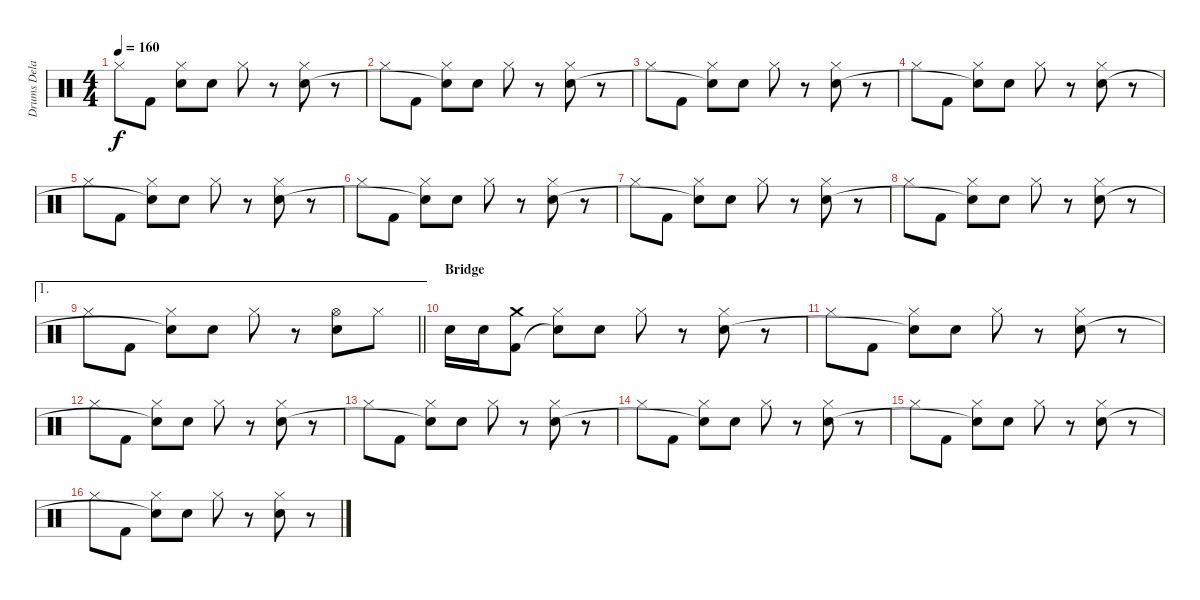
\track ("Drums Delay" "Drums Dela") {instrument percussion}
\staff {score}
\articulation defaults
\ts (4 4)
\tempo 160
\clef neutral
\ks c "Hi-Hat (closed)".8{dy f} "Kick (hit) 2".8
("Hi-Hat (closed)" "Snare (hit)"{t}).8 "Electric Snare (hit)".8 "Hi-Hat (closed)".8 r.8 ("Hi-Hat (closed)" "Electric Snare (hit)").8 r.8 |
"Hi-Hat (closed)".8 "Kick (hit) 2".8 ("Hi-Hat (closed)" "Snare (hit)"{t}).8 "Electric Snare (hit)".8 "Hi-Hat (closed)".8 r.8 ("Hi-Hat (closed)" "Electric Snare (hit)").8 r.8 |
"Hi-Hat (closed)".8 "Kick (hit) 2".8 ("Hi-Hat (closed)" "Snare (hit)"{t}).8 "Electric Snare (hit)".8 "Hi-Hat (closed)".8 r.8 ("Hi-Hat (closed)" "Electric Snare (hit)").8 r.8 |
"Hi-Hat (closed)".8 "Kick (hit) 2".8 ("Hi-Hat (closed)" "Snare (hit)"{t}).8 "Electric Snare (hit)".8 "Hi-Hat (closed)".8 r.8 ("Hi-Hat (closed)" "Electric Snare (hit)").8 r.8 |
"Hi-Hat (closed)".8 "Kick (hit) 2".8 ("Hi-Hat (closed)" "Snare (hit)"{t}).8 "Electric Snare (hit)".8 "Hi-Hat (closed)".8 r.8 ("Hi-Hat (closed)" "Electric Snare (hit)").8 r.8 |
"Hi-Hat (closed)".8 "Kick (hit) 2".8 ("Hi-Hat (closed)" "Snare (hit)"{t}).8 "Electric Snare (hit)".8 "Hi-Hat (closed)".8 r.8 ("Hi-Hat (closed)" "Electric Snare (hit)").8 r.8 |
"Hi-Hat (closed)".8 "Kick (hit) 2".8 ("Hi-Hat (closed)" "Snare (hit)"{t}).8 "Electric Snare (hit)".8 "Hi-Hat (closed)".8 r.8 ("Hi-Hat (closed)" "Electric Snare (hit)").8 r.8 |
"Hi-Hat (closed)".8 "Kick (hit) 2".8 ("Hi-Hat (closed)" "Snare (hit)"{t}).8 "Electric Snare (hit)".8 "Hi-Hat (closed)".8 r.8 ("Hi-Hat (closed)" "Electric Snare (hit)").8 r.8 |
\ae 1
\barLineRight lightlight "Hi-Hat (closed)".8 "Kick (hit) 2".8
("Hi-Hat (closed)" "Snare (hit)"{t}).8 "Electric Snare (hit)".8 "Hi-Hat (closed)".8 r.8 ("Hi-Hat (open)" "Electric Snare (hit)").8 "Hi-Hat (closed)".8 |
\section ("" "Bridge")
"Electric Snare (hit)".16 "Electric Snare (hit)".16 ("Crash medium (hit)" "Kick (hit) 2").8 ("Hi-Hat (closed)" "Snare (hit)"{t}).8 "Electric Snare (hit)".8 "Hi-Hat (closed)".8 r.8 ("Hi-Hat (closed)" "Electric Snare (hit)").8 r.8 |
"Hi-Hat (closed)".8 "Kick (hit) 2".8 ("Hi-Hat (closed)" "Snare (hit)"{t}).8 "Electric Snare (hit)".8 "Hi-Hat (closed)".8 r.8 ("Hi-Hat (closed)" "Electric Snare (hit)").8 r.8 |
"Hi-Hat (closed)".8 "Kick (hit) 2".8 ("Hi-Hat (closed)" "Snare (hit)"{t}).8 "Electric Snare (hit)".8 "Hi-Hat (closed)".8 r.8 ("Hi-Hat (closed)" "Electric Snare (hit)").8 r.8 |
"Hi-Hat (closed)".8 "Kick (hit) 2".8 ("Hi-Hat (closed)" "Snare (hit)"{t}).8 "Electric Snare (hit)".8 "Hi-Hat (closed)".8 r.8 ("Hi-Hat (closed)" "Electric Snare (hit)").8 r.8 |
"Hi-Hat (closed)".8 "Kick (hit) 2".8 ("Hi-Hat (closed)" "Snare (hit)"{t}).8 "Electric Snare (hit)".8 "Hi-Hat (closed)".8 r.8 ("Hi-Hat (closed)" "Electric Snare (hit)").8 r.8 |
"Hi-Hat (closed)".8 "Kick (hit) 2".8 ("Hi-Hat (closed)" "Snare (hit)"{t}).8 "Electric Snare (hit)".8 "Hi-Hat (closed)".8 r.8 ("Hi-Hat (closed)" "Electric Snare (hit)").8 r.8 |
"Hi-Hat (closed)".8 "Kick (hit) 2".8 ("Hi-Hat (closed)" "Snare (hit)"{t}).8 "Electric Snare (hit)".8 "Hi-Hat (closed)".8 r.8 ("Hi-Hat (closed)" "Electric Snare (hit)").8 r.8
